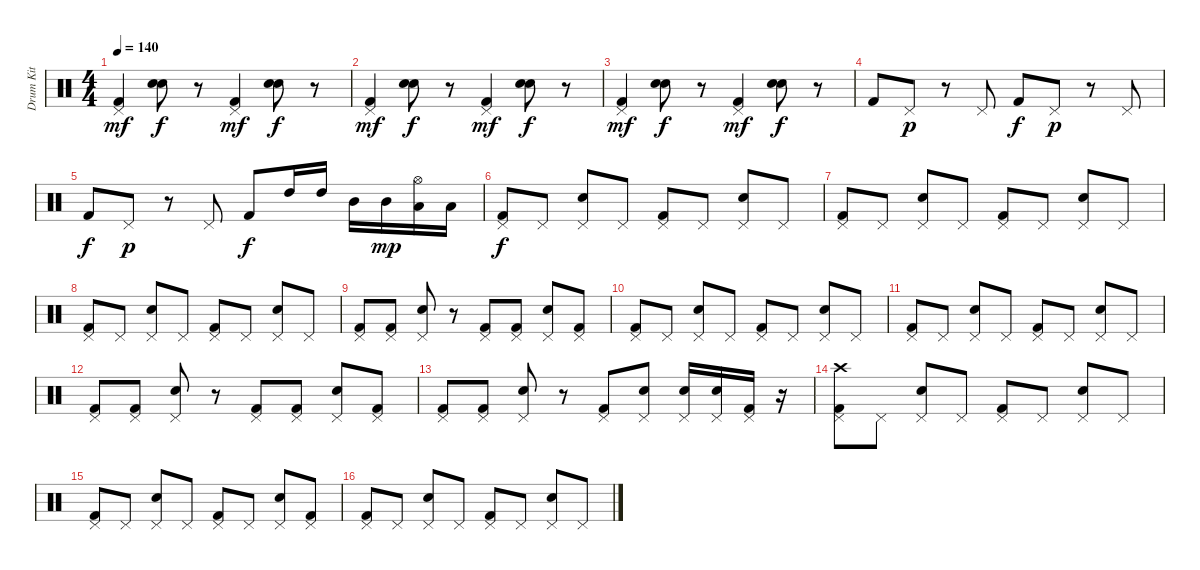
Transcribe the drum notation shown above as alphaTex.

\track ("Drum Kit" "Drum Kit") {instrument percussion}
\staff {score}
\articulation defaults
\ts (4 4)
\tempo 140
\clef neutral
\ks c
("Pedal Hi-Hat (hit)" "Kick (hit) 2").4{dy mf} ("Hand Clap (hit)" "Hand Clap (hit)").8{dy f} r.8 ("Pedal Hi-Hat (hit)" "Kick (hit) 2").4{dy mf} ("Hand Clap (hit)" "Hand Clap (hit)").8{dy f} r.8 |
("Pedal Hi-Hat (hit)" "Kick (hit) 2").4{dy mf} ("Hand Clap (hit)" "Hand Clap (hit)").8{dy f} r.8 ("Pedal Hi-Hat (hit)" "Kick (hit) 2").4{dy mf} ("Hand Clap (hit)" "Hand Clap (hit)").8{dy f} r.8 |
("Pedal Hi-Hat (hit)" "Kick (hit) 2").4{dy mf} ("Hand Clap (hit)" "Hand Clap (hit)").8{dy f} r.8 ("Pedal Hi-Hat (hit)" "Kick (hit) 2").4{dy mf} ("Hand Clap (hit)" "Hand Clap (hit)").8{dy f} r.8 |
"Kick (hit) 2".8 "Pedal Hi-Hat (hit)".8{dy p} r.8 "Pedal Hi-Hat (hit)".8 "Kick (hit) 2".8{dy f} "Pedal Hi-Hat (hit)".8{dy p} r.8 "Pedal Hi-Hat (hit)".8 |
"Kick (hit) 2".8{dy f} "Pedal Hi-Hat (hit)".8{dy p} r.8 "Pedal Hi-Hat (hit)".8 "Kick (hit) 2".8{dy f} "High Tom (hit)".16 "High Tom (hit)".16 "Mid Tom (hit)".16 "Mid Tom (hit)".16{dy mp} ("Hi-Hat (open)" "Low Floor Tom (hit)").16 "Low Floor Tom (hit)".16 |
("Pedal Hi-Hat (hit)" "Kick (hit) 2").8{dy f} "Pedal Hi-Hat (hit)".8 ("Pedal Hi-Hat (hit)" "Electric Snare (hit)").8 "Pedal Hi-Hat (hit)".8 ("Pedal Hi-Hat (hit)" "Kick (hit) 2").8 "Pedal Hi-Hat (hit)".8 ("Pedal Hi-Hat (hit)" "Electric Snare (hit)").8 "Pedal Hi-Hat (hit)".8 |
("Pedal Hi-Hat (hit)" "Kick (hit) 2").8 "Pedal Hi-Hat (hit)".8 ("Pedal Hi-Hat (hit)" "Electric Snare (hit)").8 "Pedal Hi-Hat (hit)".8 ("Pedal Hi-Hat (hit)" "Kick (hit) 2").8 "Pedal Hi-Hat (hit)".8 ("Pedal Hi-Hat (hit)" "Electric Snare (hit)").8 "Pedal Hi-Hat (hit)".8 |
("Pedal Hi-Hat (hit)" "Kick (hit) 2").8 "Pedal Hi-Hat (hit)".8 ("Pedal Hi-Hat (hit)" "Electric Snare (hit)").8 "Pedal Hi-Hat (hit)".8 ("Pedal Hi-Hat (hit)" "Kick (hit) 2").8 "Pedal Hi-Hat (hit)".8 ("Pedal Hi-Hat (hit)" "Electric Snare (hit)").8 "Pedal Hi-Hat (hit)".8 |
("Pedal Hi-Hat (hit)" "Kick (hit) 2").8 ("Pedal Hi-Hat (hit)" "Kick (hit) 2").8 ("Pedal Hi-Hat (hit)" "Electric Snare (hit)").8 r.8 ("Pedal Hi-Hat (hit)" "Kick (hit) 2").8 ("Pedal Hi-Hat (hit)" "Kick (hit) 2").8 ("Pedal Hi-Hat (hit)" "Electric Snare (hit)").8 ("Pedal Hi-Hat (hit)" "Kick (hit) 2").8 |
("Pedal Hi-Hat (hit)" "Kick (hit) 2").8 "Pedal Hi-Hat (hit)".8 ("Pedal Hi-Hat (hit)" "Electric Snare (hit)").8 "Pedal Hi-Hat (hit)".8 ("Pedal Hi-Hat (hit)" "Kick (hit) 2").8 "Pedal Hi-Hat (hit)".8 ("Pedal Hi-Hat (hit)" "Electric Snare (hit)").8 "Pedal Hi-Hat (hit)".8 |
("Pedal Hi-Hat (hit)" "Kick (hit) 2").8 "Pedal Hi-Hat (hit)".8 ("Pedal Hi-Hat (hit)" "Electric Snare (hit)").8 "Pedal Hi-Hat (hit)".8 ("Pedal Hi-Hat (hit)" "Kick (hit) 2").8 "Pedal Hi-Hat (hit)".8 ("Pedal Hi-Hat (hit)" "Electric Snare (hit)").8 "Pedal Hi-Hat (hit)".8 |
("Pedal Hi-Hat (hit)" "Kick (hit) 2").8 ("Pedal Hi-Hat (hit)" "Kick (hit) 2").8 ("Pedal Hi-Hat (hit)" "Electric Snare (hit)").8 r.8 ("Pedal Hi-Hat (hit)" "Kick (hit) 2").8 ("Pedal Hi-Hat (hit)" "Kick (hit) 2").8 ("Pedal Hi-Hat (hit)" "Electric Snare (hit)").8 ("Pedal Hi-Hat (hit)" "Kick (hit) 2").8 |
("Pedal Hi-Hat (hit)" "Kick (hit) 2").8 ("Pedal Hi-Hat (hit)" "Kick (hit) 2").8 ("Pedal Hi-Hat (hit)" "Electric Snare (hit)").8 r.8 ("Pedal Hi-Hat (hit)" "Kick (hit) 2").8 ("Pedal Hi-Hat (hit)" "Electric Snare (hit)").8 ("Pedal Hi-Hat (hit)" "Electric Snare (hit)").16 ("Pedal Hi-Hat (hit)" "Electric Snare (hit)").16 ("Pedal Hi-Hat (hit)" "Kick (hit) 2").16 r.16 |
("Crash high (hit)" "Pedal Hi-Hat (hit)" "Kick (hit) 2").8 "Pedal Hi-Hat (hit)".8 ("Pedal Hi-Hat (hit)" "Electric Snare (hit)").8 "Pedal Hi-Hat (hit)".8 ("Pedal Hi-Hat (hit)" "Kick (hit) 2").8 "Pedal Hi-Hat (hit)".8 ("Pedal Hi-Hat (hit)" "Electric Snare (hit)").8 "Pedal Hi-Hat (hit)".8 |
("Pedal Hi-Hat (hit)" "Kick (hit) 2").8 "Pedal Hi-Hat (hit)".8 ("Pedal Hi-Hat (hit)" "Electric Snare (hit)").8 "Pedal Hi-Hat (hit)".8 ("Pedal Hi-Hat (hit)" "Kick (hit) 2").8 "Pedal Hi-Hat (hit)".8 ("Pedal Hi-Hat (hit)" "Electric Snare (hit)").8 ("Pedal Hi-Hat (hit)" "Kick (hit) 2").8 |
("Pedal Hi-Hat (hit)" "Kick (hit) 2").8 "Pedal Hi-Hat (hit)".8 ("Pedal Hi-Hat (hit)" "Electric Snare (hit)").8 "Pedal Hi-Hat (hit)".8 ("Pedal Hi-Hat (hit)" "Kick (hit) 2").8 "Pedal Hi-Hat (hit)".8 ("Pedal Hi-Hat (hit)" "Electric Snare (hit)").8 "Pedal Hi-Hat (hit)".8
